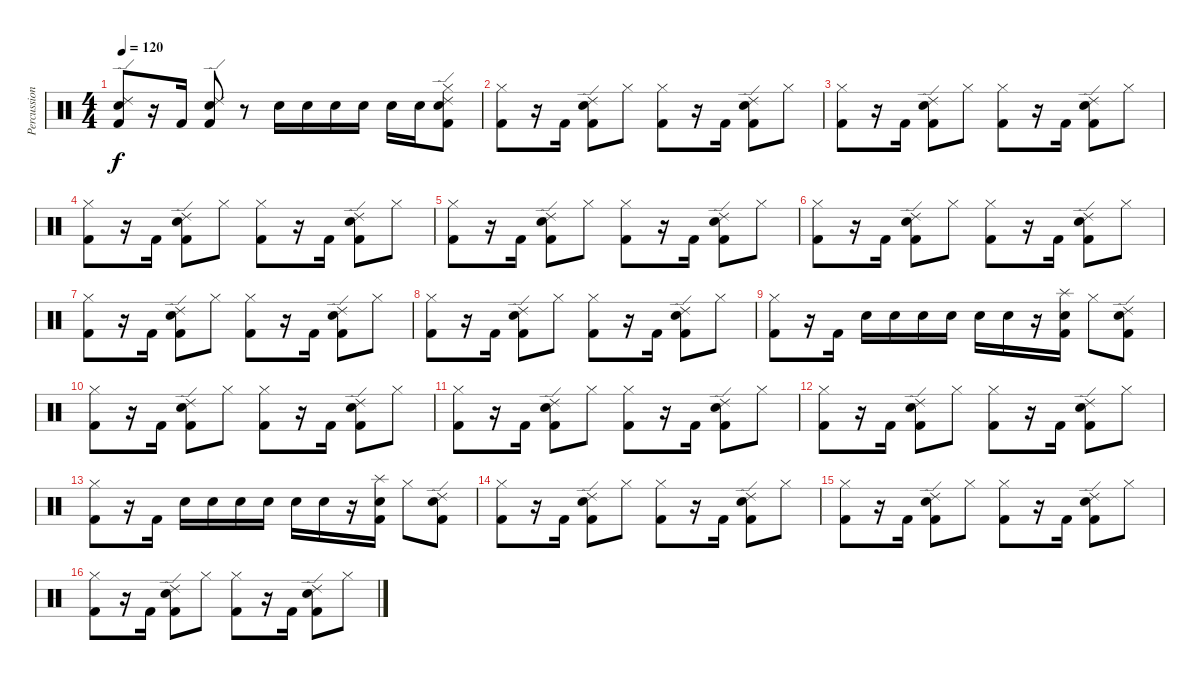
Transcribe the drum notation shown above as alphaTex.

\track ("Percussions" "Percussion") {instrument percussion}
\staff {score}
\articulation defaults
\ts (4 4)
\tempo 120
\clef neutral
\ks c
("Ride (edge) 2" "Electric Snare (hit)" "Kick (hit) 2").8{dy f} r.16 "Kick (hit) 2".16 ("Ride (edge) 2" "Electric Snare (hit)" "Kick (hit) 2").8 r.8 "Electric Snare (hit)".16 "Electric Snare (hit)".16 "Electric Snare (hit)".16 "Electric Snare (hit)".16 "Electric Snare (hit)".16 "Electric Snare (hit)".16 ("Ride (edge) 2" "Hi-Hat (closed)" "Electric Snare (hit)" "Kick (hit) 2").8 |
("Hi-Hat (closed)" "Kick (hit) 2").8 r.16 "Kick (hit) 2".16 ("Ride (edge) 2" "Electric Snare (hit)" "Kick (hit) 2").8 "Hi-Hat (closed)".8 ("Hi-Hat (closed)" "Kick (hit) 2").8 r.16 "Kick (hit) 2".16 ("Ride (edge) 2" "Electric Snare (hit)" "Kick (hit) 2").8 "Hi-Hat (closed)".8 |
("Hi-Hat (closed)" "Kick (hit) 2").8 r.16 "Kick (hit) 2".16 ("Ride (edge) 2" "Electric Snare (hit)" "Kick (hit) 2").8 "Hi-Hat (closed)".8 ("Hi-Hat (closed)" "Kick (hit) 2").8 r.16 "Kick (hit) 2".16 ("Ride (edge) 2" "Electric Snare (hit)" "Kick (hit) 2").8 "Hi-Hat (closed)".8 |
("Hi-Hat (closed)" "Kick (hit) 2").8 r.16 "Kick (hit) 2".16 ("Ride (edge) 2" "Electric Snare (hit)" "Kick (hit) 2").8 "Hi-Hat (closed)".8 ("Hi-Hat (closed)" "Kick (hit) 2").8 r.16 "Kick (hit) 2".16 ("Ride (edge) 2" "Electric Snare (hit)" "Kick (hit) 2").8 "Hi-Hat (closed)".8 |
("Hi-Hat (closed)" "Kick (hit) 2").8 r.16 "Kick (hit) 2".16 ("Ride (edge) 2" "Electric Snare (hit)" "Kick (hit) 2").8 "Hi-Hat (closed)".8 ("Hi-Hat (closed)" "Kick (hit) 2").8 r.16 "Kick (hit) 2".16 ("Ride (edge) 2" "Electric Snare (hit)" "Kick (hit) 2").8 "Hi-Hat (closed)".8 |
("Hi-Hat (closed)" "Kick (hit) 2").8 r.16 "Kick (hit) 2".16 ("Ride (edge) 2" "Electric Snare (hit)" "Kick (hit) 2").8 "Hi-Hat (closed)".8 ("Hi-Hat (closed)" "Kick (hit) 2").8 r.16 "Kick (hit) 2".16 ("Ride (edge) 2" "Electric Snare (hit)" "Kick (hit) 2").8 "Hi-Hat (closed)".8 |
("Hi-Hat (closed)" "Kick (hit) 2").8 r.16 "Kick (hit) 2".16 ("Ride (edge) 2" "Electric Snare (hit)" "Kick (hit) 2").8 "Hi-Hat (closed)".8 ("Hi-Hat (closed)" "Kick (hit) 2").8 r.16 "Kick (hit) 2".16 ("Ride (edge) 2" "Electric Snare (hit)" "Kick (hit) 2").8 "Hi-Hat (closed)".8 |
("Hi-Hat (closed)" "Kick (hit) 2").8 r.16 "Kick (hit) 2".16 ("Ride (edge) 2" "Electric Snare (hit)" "Kick (hit) 2").8 "Hi-Hat (closed)".8 ("Hi-Hat (closed)" "Kick (hit) 2").8 r.16 "Kick (hit) 2".16 ("Ride (edge) 2" "Electric Snare (hit)" "Kick (hit) 2").8 "Hi-Hat (closed)".8 |
("Hi-Hat (closed)" "Kick (hit) 2").8 r.16 "Kick (hit) 2".16 "Electric Snare (hit)".16 "Electric Snare (hit)".16 "Electric Snare (hit)".16 "Electric Snare (hit)".16 "Electric Snare (hit)".16 "Electric Snare (hit)".16 r.16 ("Splash (hit)" "Electric Snare (hit)" "Kick (hit) 2").16 "Hi-Hat (closed)".8 ("Ride (edge) 2" "Electric Snare (hit)" "Kick (hit) 2").8 |
("Hi-Hat (closed)" "Kick (hit) 2").8 r.16 "Kick (hit) 2".16 ("Ride (edge) 2" "Electric Snare (hit)" "Kick (hit) 2").8 "Hi-Hat (closed)".8 ("Hi-Hat (closed)" "Kick (hit) 2").8 r.16 "Kick (hit) 2".16 ("Ride (edge) 2" "Electric Snare (hit)" "Kick (hit) 2").8 "Hi-Hat (closed)".8 |
("Hi-Hat (closed)" "Kick (hit) 2").8 r.16 "Kick (hit) 2".16 ("Ride (edge) 2" "Electric Snare (hit)" "Kick (hit) 2").8 "Hi-Hat (closed)".8 ("Hi-Hat (closed)" "Kick (hit) 2").8 r.16 "Kick (hit) 2".16 ("Ride (edge) 2" "Electric Snare (hit)" "Kick (hit) 2").8 "Hi-Hat (closed)".8 |
("Hi-Hat (closed)" "Kick (hit) 2").8 r.16 "Kick (hit) 2".16 ("Ride (edge) 2" "Electric Snare (hit)" "Kick (hit) 2").8 "Hi-Hat (closed)".8 ("Hi-Hat (closed)" "Kick (hit) 2").8 r.16 "Kick (hit) 2".16 ("Ride (edge) 2" "Electric Snare (hit)" "Kick (hit) 2").8 "Hi-Hat (closed)".8 |
("Hi-Hat (closed)" "Kick (hit) 2").8 r.16 "Kick (hit) 2".16 "Electric Snare (hit)".16 "Electric Snare (hit)".16 "Electric Snare (hit)".16 "Electric Snare (hit)".16 "Electric Snare (hit)".16 "Electric Snare (hit)".16 r.16 ("Splash (hit)" "Electric Snare (hit)" "Kick (hit) 2").16 "Hi-Hat (closed)".8 ("Ride (edge) 2" "Electric Snare (hit)" "Kick (hit) 2").8 |
("Hi-Hat (closed)" "Kick (hit) 2").8 r.16 "Kick (hit) 2".16 ("Ride (edge) 2" "Electric Snare (hit)" "Kick (hit) 2").8 "Hi-Hat (closed)".8 ("Hi-Hat (closed)" "Kick (hit) 2").8 r.16 "Kick (hit) 2".16 ("Ride (edge) 2" "Electric Snare (hit)" "Kick (hit) 2").8 "Hi-Hat (closed)".8 |
("Hi-Hat (closed)" "Kick (hit) 2").8 r.16 "Kick (hit) 2".16 ("Ride (edge) 2" "Electric Snare (hit)" "Kick (hit) 2").8 "Hi-Hat (closed)".8 ("Hi-Hat (closed)" "Kick (hit) 2").8 r.16 "Kick (hit) 2".16 ("Ride (edge) 2" "Electric Snare (hit)" "Kick (hit) 2").8 "Hi-Hat (closed)".8 |
("Hi-Hat (closed)" "Kick (hit) 2").8 r.16 "Kick (hit) 2".16 ("Ride (edge) 2" "Electric Snare (hit)" "Kick (hit) 2").8 "Hi-Hat (closed)".8 ("Hi-Hat (closed)" "Kick (hit) 2").8 r.16 "Kick (hit) 2".16 ("Ride (edge) 2" "Electric Snare (hit)" "Kick (hit) 2").8 "Hi-Hat (closed)".8
